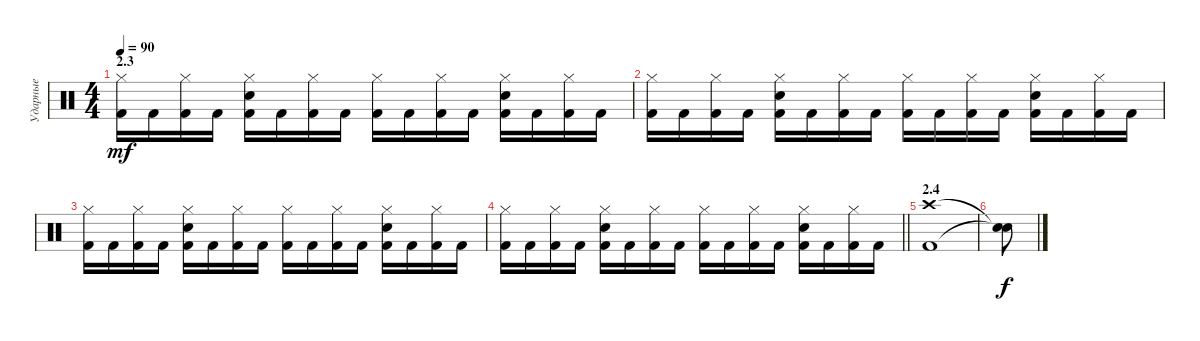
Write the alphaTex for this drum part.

\track ("Ударные" "Ударные") {instrument percussion}
\staff {score}
\articulation defaults
\ts (4 4)
\section ("" "2.3")
\tempo 90
\clef neutral
\ks c
("Hi-Hat (closed)" "Kick (hit) 2").16{dy mf} "Kick (hit) 2".16 ("Hi-Hat (closed)" "Kick (hit) 2").16 "Kick (hit) 2".16 ("Hi-Hat (closed)" "Electric Snare (hit)" "Kick (hit) 2").16 "Kick (hit) 2".16 ("Hi-Hat (closed)" "Kick (hit) 2").16 "Kick (hit) 2".16 ("Hi-Hat (closed)" "Kick (hit) 2").16 "Kick (hit) 2".16 ("Hi-Hat (closed)" "Kick (hit) 2").16 "Kick (hit) 2".16 ("Hi-Hat (closed)" "Electric Snare (hit)" "Kick (hit) 2").16 "Kick (hit) 2".16 ("Hi-Hat (closed)" "Kick (hit) 2").16 "Kick (hit) 2".16 |
("Hi-Hat (closed)" "Kick (hit) 2").16 "Kick (hit) 2".16 ("Hi-Hat (closed)" "Kick (hit) 2").16 "Kick (hit) 2".16 ("Hi-Hat (closed)" "Electric Snare (hit)" "Kick (hit) 2").16 "Kick (hit) 2".16 ("Hi-Hat (closed)" "Kick (hit) 2").16 "Kick (hit) 2".16 ("Hi-Hat (closed)" "Kick (hit) 2").16 "Kick (hit) 2".16 ("Hi-Hat (closed)" "Kick (hit) 2").16 "Kick (hit) 2".16 ("Hi-Hat (closed)" "Electric Snare (hit)" "Kick (hit) 2").16 "Kick (hit) 2".16 ("Hi-Hat (closed)" "Kick (hit) 2").16 "Kick (hit) 2".16 |
("Hi-Hat (closed)" "Kick (hit) 2").16 "Kick (hit) 2".16 ("Hi-Hat (closed)" "Kick (hit) 2").16 "Kick (hit) 2".16 ("Hi-Hat (closed)" "Electric Snare (hit)" "Kick (hit) 2").16 "Kick (hit) 2".16 ("Hi-Hat (closed)" "Kick (hit) 2").16 "Kick (hit) 2".16 ("Hi-Hat (closed)" "Kick (hit) 2").16 "Kick (hit) 2".16 ("Hi-Hat (closed)" "Kick (hit) 2").16 "Kick (hit) 2".16 ("Hi-Hat (closed)" "Electric Snare (hit)" "Kick (hit) 2").16 "Kick (hit) 2".16 ("Hi-Hat (closed)" "Kick (hit) 2").16 "Kick (hit) 2".16 |
\barLineRight lightlight
("Hi-Hat (closed)" "Kick (hit) 2").16 "Kick (hit) 2".16 ("Hi-Hat (closed)" "Kick (hit) 2").16 "Kick (hit) 2".16 ("Hi-Hat (closed)" "Electric Snare (hit)" "Kick (hit) 2").16 "Kick (hit) 2".16 ("Hi-Hat (closed)" "Kick (hit) 2").16 "Kick (hit) 2".16 ("Hi-Hat (closed)" "Kick (hit) 2").16 "Kick (hit) 2".16 ("Hi-Hat (closed)" "Kick (hit) 2").16 "Kick (hit) 2".16 ("Hi-Hat (closed)" "Electric Snare (hit)" "Kick (hit) 2").16 "Kick (hit) 2".16 ("Hi-Hat (closed)" "Kick (hit) 2").16 "Kick (hit) 2".16 |
\section ("" "2.4")
("Crash high (hit)" "Kick (hit) 2").1 |
("Snare (hit)"{t} "Snare (hit)"{t}).8{dy f}
